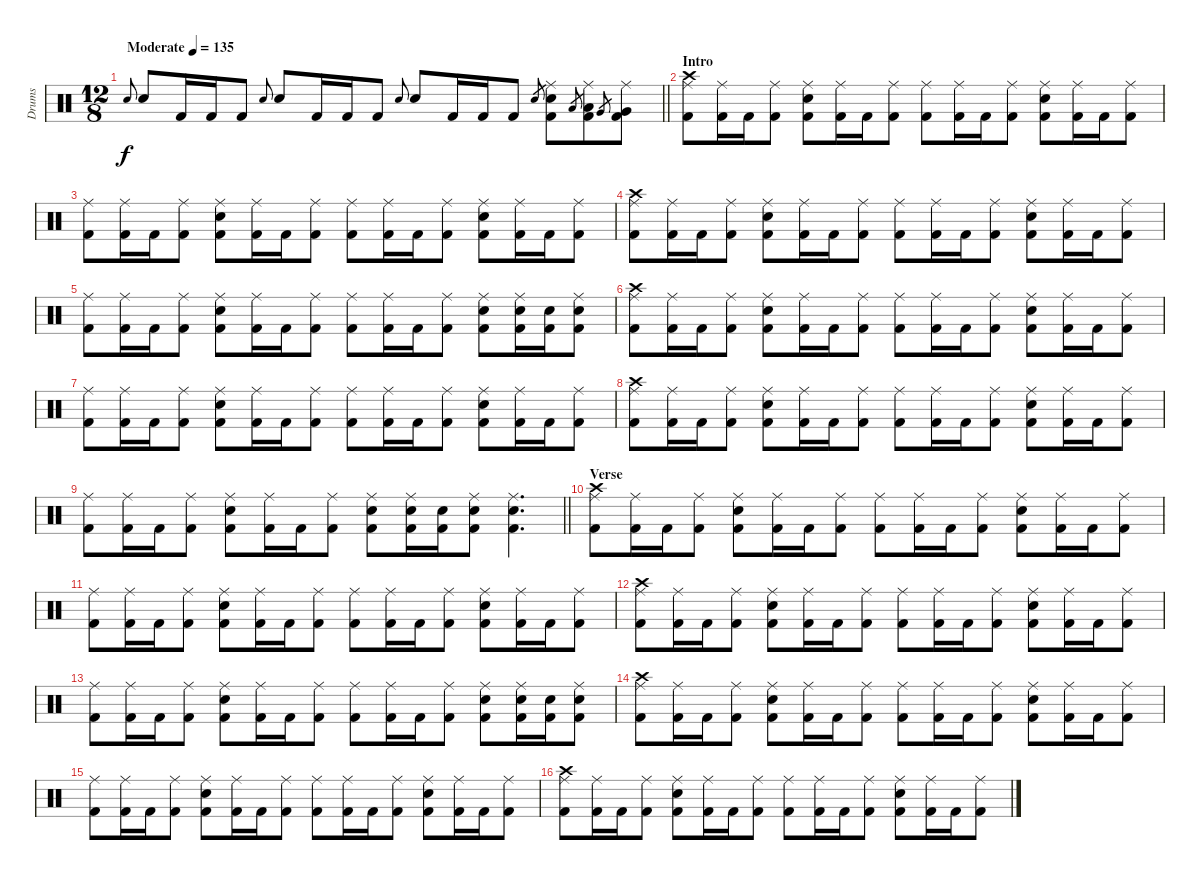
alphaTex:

\track ("Drums" "Drums") {instrument percussion}
\staff {score}
\articulation defaults
\ts (12 8)
\tempo (135 "Moderate")
\clef neutral
\barLineRight lightlight
\ks c "Snare (hit) 2".8{gr onbeat dy f} "Snare (hit) 2".8 "Kick (hit) 2".16 "Kick (hit) 2".16 "Kick (hit) 2".8 "Snare (hit) 2".8{gr onbeat} "Snare (hit) 2".8 "Kick (hit) 2".16 "Kick (hit) 2".16 "Kick (hit) 2".8 "Snare (hit) 2".8{gr onbeat} "Snare (hit) 2".8 "Kick (hit) 2".16 "Kick (hit) 2".16 "Kick (hit) 2".8 "Snare (hit) 2".8{gr}
("Ride (middle)" "Snare (hit) 2" "Kick (hit) 2").8 "Low Tom (hit)".8{gr} ("Ride (middle)" "Low Tom (hit)" "Kick (hit) 2").8 "Very Low Tom (hit)".8{gr} ("Ride (middle)" "Very Low Tom (hit)" "Kick (hit) 2").8 |
\section ("" "Intro")
("Crash high (hit)" "Ride (middle)" "Kick (hit) 2").8 ("Ride (middle)" "Kick (hit) 2").16 "Kick (hit) 2".16 ("Ride (middle)" "Kick (hit) 2").8 ("Ride (middle)" "Snare (hit) 2" "Kick (hit) 2").8 ("Ride (middle)" "Kick (hit) 2").16 "Kick (hit) 2".16 ("Ride (middle)" "Kick (hit) 2").8 ("Ride (middle)" "Kick (hit) 2").8 ("Ride (middle)" "Kick (hit) 2").16 "Kick (hit) 2".16 ("Ride (middle)" "Kick (hit) 2").8 ("Ride (middle)" "Snare (hit) 2" "Kick (hit) 2").8 ("Ride (middle)" "Kick (hit) 2").16 "Kick (hit) 2".16 ("Ride (middle)" "Kick (hit) 2").8 |
("Ride (middle)" "Kick (hit) 2").8 ("Ride (middle)" "Kick (hit) 2").16 "Kick (hit) 2".16 ("Ride (middle)" "Kick (hit) 2").8 ("Ride (middle)" "Snare (hit) 2" "Kick (hit) 2").8 ("Ride (middle)" "Kick (hit) 2").16 "Kick (hit) 2".16 ("Ride (middle)" "Kick (hit) 2").8 ("Ride (middle)" "Kick (hit) 2").8 ("Ride (middle)" "Kick (hit) 2").16 "Kick (hit) 2".16 ("Ride (middle)" "Kick (hit) 2").8 ("Ride (middle)" "Snare (hit) 2" "Kick (hit) 2").8 ("Ride (middle)" "Kick (hit) 2").16 "Kick (hit) 2".16 ("Ride (middle)" "Kick (hit) 2").8 |
("Crash high (hit)" "Ride (middle)" "Kick (hit) 2").8 ("Ride (middle)" "Kick (hit) 2").16 "Kick (hit) 2".16 ("Ride (middle)" "Kick (hit) 2").8 ("Ride (middle)" "Snare (hit) 2" "Kick (hit) 2").8 ("Ride (middle)" "Kick (hit) 2").16 "Kick (hit) 2".16 ("Ride (middle)" "Kick (hit) 2").8 ("Ride (middle)" "Kick (hit) 2").8 ("Ride (middle)" "Kick (hit) 2").16 "Kick (hit) 2".16 ("Ride (middle)" "Kick (hit) 2").8 ("Ride (middle)" "Snare (hit) 2" "Kick (hit) 2").8 ("Ride (middle)" "Kick (hit) 2").16 "Kick (hit) 2".16 ("Ride (middle)" "Kick (hit) 2").8 |
("Ride (middle)" "Kick (hit) 2").8 ("Ride (middle)" "Kick (hit) 2").16 "Kick (hit) 2".16 ("Ride (middle)" "Kick (hit) 2").8 ("Ride (middle)" "Snare (hit) 2" "Kick (hit) 2").8 ("Ride (middle)" "Kick (hit) 2").16 "Kick (hit) 2".16 ("Ride (middle)" "Kick (hit) 2").8 ("Ride (middle)" "Kick (hit) 2").8 ("Ride (middle)" "Kick (hit) 2").16 "Kick (hit) 2".16 ("Ride (middle)" "Kick (hit) 2").8 ("Ride (middle)" "Snare (hit) 2" "Kick (hit) 2").8 ("Ride (middle)" "Snare (hit) 2" "Kick (hit) 2").16 ("Snare (hit) 2" "Kick (hit) 2").16 ("Ride (middle)" "Snare (hit) 2" "Kick (hit) 2").8 |
("Crash high (hit)" "Ride (middle)" "Kick (hit) 2").8 ("Ride (middle)" "Kick (hit) 2").16 "Kick (hit) 2".16 ("Ride (middle)" "Kick (hit) 2").8 ("Ride (middle)" "Snare (hit) 2" "Kick (hit) 2").8 ("Ride (middle)" "Kick (hit) 2").16 "Kick (hit) 2".16 ("Ride (middle)" "Kick (hit) 2").8 ("Ride (middle)" "Kick (hit) 2").8 ("Ride (middle)" "Kick (hit) 2").16 "Kick (hit) 2".16 ("Ride (middle)" "Kick (hit) 2").8 ("Ride (middle)" "Snare (hit) 2" "Kick (hit) 2").8 ("Ride (middle)" "Kick (hit) 2").16 "Kick (hit) 2".16 ("Ride (middle)" "Kick (hit) 2").8 |
("Ride (middle)" "Kick (hit) 2").8 ("Ride (middle)" "Kick (hit) 2").16 "Kick (hit) 2".16 ("Ride (middle)" "Kick (hit) 2").8 ("Ride (middle)" "Snare (hit) 2" "Kick (hit) 2").8 ("Ride (middle)" "Kick (hit) 2").16 "Kick (hit) 2".16 ("Ride (middle)" "Kick (hit) 2").8 ("Ride (middle)" "Kick (hit) 2").8 ("Ride (middle)" "Kick (hit) 2").16 "Kick (hit) 2".16 ("Ride (middle)" "Kick (hit) 2").8 ("Ride (middle)" "Snare (hit) 2" "Kick (hit) 2").8 ("Ride (middle)" "Kick (hit) 2").16 "Kick (hit) 2".16 ("Ride (middle)" "Kick (hit) 2").8 |
("Crash high (hit)" "Ride (middle)" "Kick (hit) 2").8 ("Ride (middle)" "Kick (hit) 2").16 "Kick (hit) 2".16 ("Ride (middle)" "Kick (hit) 2").8 ("Ride (middle)" "Snare (hit) 2" "Kick (hit) 2").8 ("Ride (middle)" "Kick (hit) 2").16 "Kick (hit) 2".16 ("Ride (middle)" "Kick (hit) 2").8 ("Ride (middle)" "Kick (hit) 2").8 ("Ride (middle)" "Kick (hit) 2").16 "Kick (hit) 2".16 ("Ride (middle)" "Kick (hit) 2").8 ("Ride (middle)" "Snare (hit) 2" "Kick (hit) 2").8 ("Ride (middle)" "Kick (hit) 2").16 "Kick (hit) 2".16 ("Ride (middle)" "Kick (hit) 2").8 |
\barLineRight lightlight
("Ride (middle)" "Kick (hit) 2").8 ("Ride (middle)" "Kick (hit) 2").16 "Kick (hit) 2".16 ("Ride (middle)" "Kick (hit) 2").8 ("Ride (middle)" "Snare (hit) 2" "Kick (hit) 2").8 ("Ride (middle)" "Kick (hit) 2").16 "Kick (hit) 2".16 ("Ride (middle)" "Kick (hit) 2").8 ("Ride (middle)" "Snare (hit) 2" "Kick (hit) 2").8 ("Ride (middle)" "Snare (hit) 2" "Kick (hit) 2").16 ("Snare (hit) 2" "Kick (hit) 2").16 ("Ride (middle)" "Snare (hit) 2" "Kick (hit) 2").8 ("Ride (middle)" "Snare (hit) 2" "Kick (hit) 2").4{d} |
\section ("" "Verse")
("Crash high (hit)" "Ride (middle)" "Kick (hit) 2").8 ("Ride (middle)" "Kick (hit) 2").16 "Kick (hit) 2".16 ("Ride (middle)" "Kick (hit) 2").8 ("Ride (middle)" "Snare (hit) 2" "Kick (hit) 2").8 ("Ride (middle)" "Kick (hit) 2").16 "Kick (hit) 2".16 ("Ride (middle)" "Kick (hit) 2").8 ("Ride (middle)" "Kick (hit) 2").8 ("Ride (middle)" "Kick (hit) 2").16 "Kick (hit) 2".16 ("Ride (middle)" "Kick (hit) 2").8 ("Ride (middle)" "Snare (hit) 2" "Kick (hit) 2").8 ("Ride (middle)" "Kick (hit) 2").16 "Kick (hit) 2".16 ("Ride (middle)" "Kick (hit) 2").8 |
("Ride (middle)" "Kick (hit) 2").8 ("Ride (middle)" "Kick (hit) 2").16 "Kick (hit) 2".16 ("Ride (middle)" "Kick (hit) 2").8 ("Ride (middle)" "Snare (hit) 2" "Kick (hit) 2").8 ("Ride (middle)" "Kick (hit) 2").16 "Kick (hit) 2".16 ("Ride (middle)" "Kick (hit) 2").8 ("Ride (middle)" "Kick (hit) 2").8 ("Ride (middle)" "Kick (hit) 2").16 "Kick (hit) 2".16 ("Ride (middle)" "Kick (hit) 2").8 ("Ride (middle)" "Snare (hit) 2" "Kick (hit) 2").8 ("Ride (middle)" "Kick (hit) 2").16 "Kick (hit) 2".16 ("Ride (middle)" "Kick (hit) 2").8 |
("Crash high (hit)" "Ride (middle)" "Kick (hit) 2").8 ("Ride (middle)" "Kick (hit) 2").16 "Kick (hit) 2".16 ("Ride (middle)" "Kick (hit) 2").8 ("Ride (middle)" "Snare (hit) 2" "Kick (hit) 2").8 ("Ride (middle)" "Kick (hit) 2").16 "Kick (hit) 2".16 ("Ride (middle)" "Kick (hit) 2").8 ("Ride (middle)" "Kick (hit) 2").8 ("Ride (middle)" "Kick (hit) 2").16 "Kick (hit) 2".16 ("Ride (middle)" "Kick (hit) 2").8 ("Ride (middle)" "Snare (hit) 2" "Kick (hit) 2").8 ("Ride (middle)" "Kick (hit) 2").16 "Kick (hit) 2".16 ("Ride (middle)" "Kick (hit) 2").8 |
("Ride (middle)" "Kick (hit) 2").8 ("Ride (middle)" "Kick (hit) 2").16 "Kick (hit) 2".16 ("Ride (middle)" "Kick (hit) 2").8 ("Ride (middle)" "Snare (hit) 2" "Kick (hit) 2").8 ("Ride (middle)" "Kick (hit) 2").16 "Kick (hit) 2".16 ("Ride (middle)" "Kick (hit) 2").8 ("Ride (middle)" "Kick (hit) 2").8 ("Ride (middle)" "Kick (hit) 2").16 "Kick (hit) 2".16 ("Ride (middle)" "Kick (hit) 2").8 ("Ride (middle)" "Snare (hit) 2" "Kick (hit) 2").8 ("Ride (middle)" "Snare (hit) 2" "Kick (hit) 2").16 ("Snare (hit) 2" "Kick (hit) 2").16 ("Ride (middle)" "Snare (hit) 2" "Kick (hit) 2").8 |
("Crash high (hit)" "Ride (middle)" "Kick (hit) 2").8 ("Ride (middle)" "Kick (hit) 2").16 "Kick (hit) 2".16 ("Ride (middle)" "Kick (hit) 2").8 ("Ride (middle)" "Snare (hit) 2" "Kick (hit) 2").8 ("Ride (middle)" "Kick (hit) 2").16 "Kick (hit) 2".16 ("Ride (middle)" "Kick (hit) 2").8 ("Ride (middle)" "Kick (hit) 2").8 ("Ride (middle)" "Kick (hit) 2").16 "Kick (hit) 2".16 ("Ride (middle)" "Kick (hit) 2").8 ("Ride (middle)" "Snare (hit) 2" "Kick (hit) 2").8 ("Ride (middle)" "Kick (hit) 2").16 "Kick (hit) 2".16 ("Ride (middle)" "Kick (hit) 2").8 |
("Ride (middle)" "Kick (hit) 2").8 ("Ride (middle)" "Kick (hit) 2").16 "Kick (hit) 2".16 ("Ride (middle)" "Kick (hit) 2").8 ("Ride (middle)" "Snare (hit) 2" "Kick (hit) 2").8 ("Ride (middle)" "Kick (hit) 2").16 "Kick (hit) 2".16 ("Ride (middle)" "Kick (hit) 2").8 ("Ride (middle)" "Kick (hit) 2").8 ("Ride (middle)" "Kick (hit) 2").16 "Kick (hit) 2".16 ("Ride (middle)" "Kick (hit) 2").8 ("Ride (middle)" "Snare (hit) 2" "Kick (hit) 2").8 ("Ride (middle)" "Kick (hit) 2").16 "Kick (hit) 2".16 ("Ride (middle)" "Kick (hit) 2").8 |
("Crash high (hit)" "Ride (middle)" "Kick (hit) 2").8 ("Ride (middle)" "Kick (hit) 2").16 "Kick (hit) 2".16 ("Ride (middle)" "Kick (hit) 2").8 ("Ride (middle)" "Snare (hit) 2" "Kick (hit) 2").8 ("Ride (middle)" "Kick (hit) 2").16 "Kick (hit) 2".16 ("Ride (middle)" "Kick (hit) 2").8 ("Ride (middle)" "Kick (hit) 2").8 ("Ride (middle)" "Kick (hit) 2").16 "Kick (hit) 2".16 ("Ride (middle)" "Kick (hit) 2").8 ("Ride (middle)" "Snare (hit) 2" "Kick (hit) 2").8 ("Ride (middle)" "Kick (hit) 2").16 "Kick (hit) 2".16 ("Ride (middle)" "Kick (hit) 2").8
